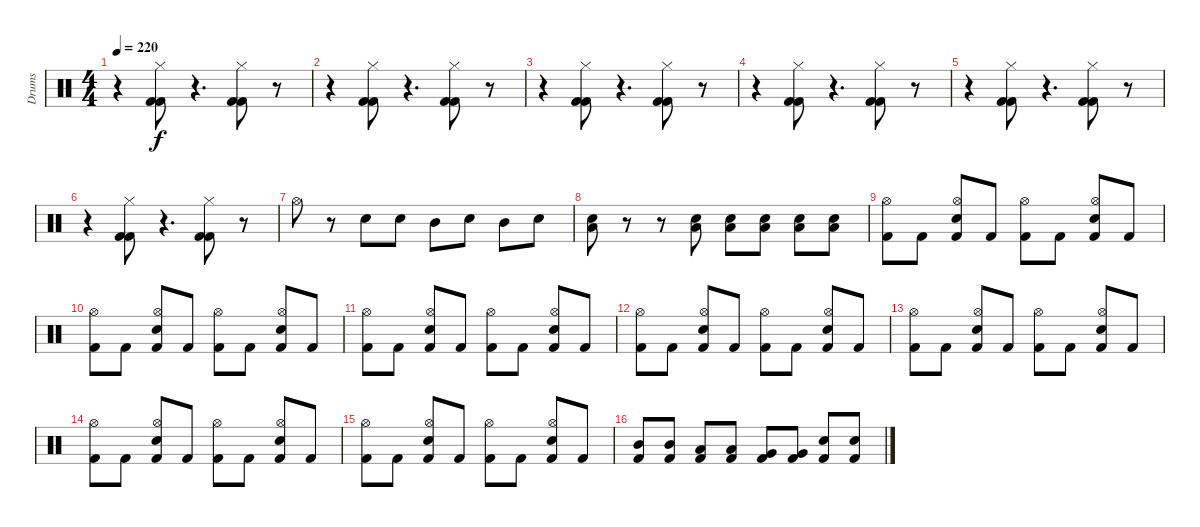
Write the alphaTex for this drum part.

\track ("Drums" "Drums") {instrument percussion}
\staff {score}
\articulation defaults
\ts (4 4)
\tempo 220
\clef neutral
\ks c
r.4{dy f} ("Hi-Hat (closed)" "Kick (hit) 2" "Kick (hit) 2").8 r.4{d} ("Hi-Hat (closed)" "Kick (hit) 2" "Kick (hit) 2").8 r.8 |
r.4 ("Hi-Hat (closed)" "Kick (hit) 2" "Kick (hit) 2").8 r.4{d} ("Hi-Hat (closed)" "Kick (hit) 2" "Kick (hit) 2").8 r.8 |
r.4 ("Hi-Hat (closed)" "Kick (hit) 2" "Kick (hit) 2").8 r.4{d} ("Hi-Hat (closed)" "Kick (hit) 2" "Kick (hit) 2").8 r.8 |
r.4 ("Hi-Hat (closed)" "Kick (hit) 2" "Kick (hit) 2").8 r.4{d} ("Hi-Hat (closed)" "Kick (hit) 2" "Kick (hit) 2").8 r.8 |
r.4 ("Hi-Hat (closed)" "Kick (hit) 2" "Kick (hit) 2").8 r.4{d} ("Hi-Hat (closed)" "Kick (hit) 2" "Kick (hit) 2").8 r.8 |
r.4 ("Hi-Hat (closed)" "Kick (hit) 2" "Kick (hit) 2").8 r.4{d} ("Hi-Hat (closed)" "Kick (hit) 2" "Kick (hit) 2").8 r.8 |
"Hi-Hat (open)".8 r.8 "Electric Snare (hit)".8 "Electric Snare (hit)".8 "Mid Tom (hit)".8 "Electric Snare (hit)".8 "Mid Tom (hit)".8 "Electric Snare (hit)".8 |
("Electric Snare (hit)" "Low Tom (hit)").8 r.8 r.8 ("Low Tom (hit)" "Electric Snare (hit)").8 ("Low Tom (hit)" "Electric Snare (hit)").8 ("Low Tom (hit)" "Electric Snare (hit)").8 ("Low Tom (hit)" "Electric Snare (hit)").8 ("Low Tom (hit)" "Electric Snare (hit)").8 |
("Hi-Hat (open)" "Kick (hit) 2").8 "Kick (hit) 2".8 ("Electric Snare (hit)" "Hi-Hat (open)" "Kick (hit) 2").8 "Kick (hit) 2".8 ("Hi-Hat (open)" "Kick (hit) 2").8 "Kick (hit) 2".8 ("Electric Snare (hit)" "Hi-Hat (open)" "Kick (hit) 2").8 "Kick (hit) 2".8 |
("Hi-Hat (open)" "Kick (hit) 2").8 "Kick (hit) 2".8 ("Electric Snare (hit)" "Hi-Hat (open)" "Kick (hit) 2").8 "Kick (hit) 2".8 ("Hi-Hat (open)" "Kick (hit) 2").8 "Kick (hit) 2".8 ("Electric Snare (hit)" "Hi-Hat (open)" "Kick (hit) 2").8 "Kick (hit) 2".8 |
("Hi-Hat (open)" "Kick (hit) 2").8 "Kick (hit) 2".8 ("Electric Snare (hit)" "Hi-Hat (open)" "Kick (hit) 2").8 "Kick (hit) 2".8 ("Hi-Hat (open)" "Kick (hit) 2").8 "Kick (hit) 2".8 ("Electric Snare (hit)" "Hi-Hat (open)" "Kick (hit) 2").8 "Kick (hit) 2".8 |
("Hi-Hat (open)" "Kick (hit) 2").8 "Kick (hit) 2".8 ("Electric Snare (hit)" "Hi-Hat (open)" "Kick (hit) 2").8 "Kick (hit) 2".8 ("Hi-Hat (open)" "Kick (hit) 2").8 "Kick (hit) 2".8 ("Electric Snare (hit)" "Hi-Hat (open)" "Kick (hit) 2").8 "Kick (hit) 2".8 |
("Hi-Hat (open)" "Kick (hit) 2").8 "Kick (hit) 2".8 ("Electric Snare (hit)" "Hi-Hat (open)" "Kick (hit) 2").8 "Kick (hit) 2".8 ("Hi-Hat (open)" "Kick (hit) 2").8 "Kick (hit) 2".8 ("Electric Snare (hit)" "Hi-Hat (open)" "Kick (hit) 2").8 "Kick (hit) 2".8 |
("Hi-Hat (open)" "Kick (hit) 2").8 "Kick (hit) 2".8 ("Electric Snare (hit)" "Hi-Hat (open)" "Kick (hit) 2").8 "Kick (hit) 2".8 ("Hi-Hat (open)" "Kick (hit) 2").8 "Kick (hit) 2".8 ("Electric Snare (hit)" "Hi-Hat (open)" "Kick (hit) 2").8 "Kick (hit) 2".8 |
("Hi-Hat (open)" "Kick (hit) 2").8 "Kick (hit) 2".8 ("Electric Snare (hit)" "Hi-Hat (open)" "Kick (hit) 2").8 "Kick (hit) 2".8 ("Hi-Hat (open)" "Kick (hit) 2").8 "Kick (hit) 2".8 ("Electric Snare (hit)" "Hi-Hat (open)" "Kick (hit) 2").8 "Kick (hit) 2".8 |
("Mid Tom (hit)" "Kick (hit) 2").8 ("Mid Tom (hit)" "Kick (hit) 2").8 ("Low Tom (hit)" "Kick (hit) 2").8 ("Low Tom (hit)" "Kick (hit) 2").8 ("Very Low Tom (hit)" "Kick (hit) 2").8 ("Very Low Tom (hit)" "Kick (hit) 2").8 ("Electric Snare (hit)" "Kick (hit) 2").8 ("Electric Snare (hit)" "Kick (hit) 2").8
